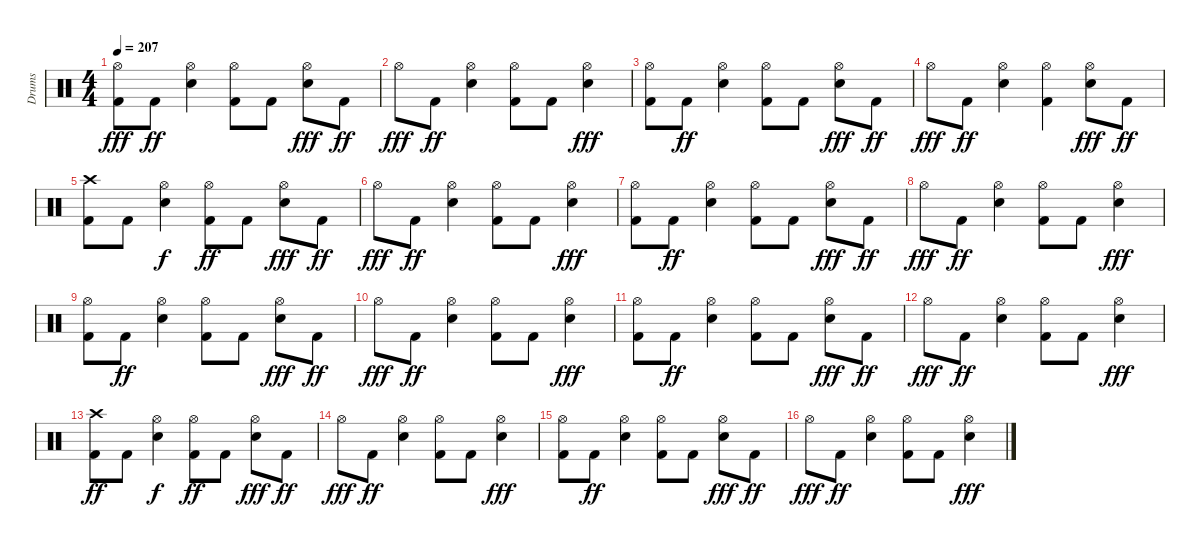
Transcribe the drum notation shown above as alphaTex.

\track ("Drums" "Drums") {instrument percussion}
\staff {score}
\articulation defaults
\ts (4 4)
\tempo 207
\clef neutral
\ks c
("Kick (hit) 2" "Hi-Hat (open)").8{dy fff} "Kick (hit) 2".8{dy ff} ("Snare (hit) 2" "Hi-Hat (open)").4 ("Kick (hit) 2" "Hi-Hat (open)").8 "Kick (hit) 2".8 ("Snare (hit) 2" "Hi-Hat (open)").8{dy fff} "Kick (hit) 2".8{dy ff} |
"Hi-Hat (open)".8{dy fff} "Kick (hit) 2".8{dy ff} ("Snare (hit) 2" "Hi-Hat (open)").4 ("Kick (hit) 2" "Hi-Hat (open)").8 "Kick (hit) 2".8 ("Snare (hit) 2" "Hi-Hat (open)").4{dy fff} |
("Kick (hit) 2" "Hi-Hat (open)").8 "Kick (hit) 2".8{dy ff} ("Snare (hit) 2" "Hi-Hat (open)").4 ("Kick (hit) 2" "Hi-Hat (open)").8 "Kick (hit) 2".8 ("Snare (hit) 2" "Hi-Hat (open)").8{dy fff} "Kick (hit) 2".8{dy ff} |
"Hi-Hat (open)".8{dy fff} "Kick (hit) 2".8{dy ff} ("Snare (hit) 2" "Hi-Hat (open)").4 ("Kick (hit) 2" "Hi-Hat (open)").4 ("Hi-Hat (open)" "Snare (hit) 2").8{dy fff} "Kick (hit) 2".8{dy ff} |
("Crash high (hit)" "Kick (hit) 2").8 "Kick (hit) 2".8 ("Hi-Hat (open)" "Snare (hit) 2").4{dy f} ("Kick (hit) 2" "Hi-Hat (open)").8{dy ff} "Kick (hit) 2".8 ("Snare (hit) 2" "Hi-Hat (open)").8{dy fff} "Kick (hit) 2".8{dy ff} |
"Hi-Hat (open)".8{dy fff} "Kick (hit) 2".8{dy ff} ("Snare (hit) 2" "Hi-Hat (open)").4 ("Kick (hit) 2" "Hi-Hat (open)").8 "Kick (hit) 2".8 ("Snare (hit) 2" "Hi-Hat (open)").4{dy fff} |
("Kick (hit) 2" "Hi-Hat (open)").8 "Kick (hit) 2".8{dy ff} ("Snare (hit) 2" "Hi-Hat (open)").4 ("Kick (hit) 2" "Hi-Hat (open)").8 "Kick (hit) 2".8 ("Snare (hit) 2" "Hi-Hat (open)").8{dy fff} "Kick (hit) 2".8{dy ff} |
"Hi-Hat (open)".8{dy fff} "Kick (hit) 2".8{dy ff} ("Snare (hit) 2" "Hi-Hat (open)").4 ("Kick (hit) 2" "Hi-Hat (open)").8 "Kick (hit) 2".8 ("Snare (hit) 2" "Hi-Hat (open)").4{dy fff} |
("Kick (hit) 2" "Hi-Hat (open)").8 "Kick (hit) 2".8{dy ff} ("Snare (hit) 2" "Hi-Hat (open)").4 ("Kick (hit) 2" "Hi-Hat (open)").8 "Kick (hit) 2".8 ("Snare (hit) 2" "Hi-Hat (open)").8{dy fff} "Kick (hit) 2".8{dy ff} |
"Hi-Hat (open)".8{dy fff} "Kick (hit) 2".8{dy ff} ("Snare (hit) 2" "Hi-Hat (open)").4 ("Kick (hit) 2" "Hi-Hat (open)").8 "Kick (hit) 2".8 ("Snare (hit) 2" "Hi-Hat (open)").4{dy fff} |
("Kick (hit) 2" "Hi-Hat (open)").8 "Kick (hit) 2".8{dy ff} ("Snare (hit) 2" "Hi-Hat (open)").4 ("Kick (hit) 2" "Hi-Hat (open)").8 "Kick (hit) 2".8 ("Snare (hit) 2" "Hi-Hat (open)").8{dy fff} "Kick (hit) 2".8{dy ff} |
"Hi-Hat (open)".8{dy fff} "Kick (hit) 2".8{dy ff} ("Snare (hit) 2" "Hi-Hat (open)").4 ("Kick (hit) 2" "Hi-Hat (open)").8 "Kick (hit) 2".8 ("Snare (hit) 2" "Hi-Hat (open)").4{dy fff} |
("Crash high (hit)" "Kick (hit) 2").8{dy ff} "Kick (hit) 2".8 ("Snare (hit) 2" "Hi-Hat (open)").4{dy f} ("Kick (hit) 2" "Hi-Hat (open)").8{dy ff} "Kick (hit) 2".8 ("Snare (hit) 2" "Hi-Hat (open)").8{dy fff} "Kick (hit) 2".8{dy ff} |
"Hi-Hat (open)".8{dy fff} "Kick (hit) 2".8{dy ff} ("Snare (hit) 2" "Hi-Hat (open)").4 ("Kick (hit) 2" "Hi-Hat (open)").8 "Kick (hit) 2".8 ("Snare (hit) 2" "Hi-Hat (open)").4{dy fff} |
("Kick (hit) 2" "Hi-Hat (open)").8 "Kick (hit) 2".8{dy ff} ("Snare (hit) 2" "Hi-Hat (open)").4 ("Kick (hit) 2" "Hi-Hat (open)").8 "Kick (hit) 2".8 ("Snare (hit) 2" "Hi-Hat (open)").8{dy fff} "Kick (hit) 2".8{dy ff} |
"Hi-Hat (open)".8{dy fff} "Kick (hit) 2".8{dy ff} ("Snare (hit) 2" "Hi-Hat (open)").4 ("Kick (hit) 2" "Hi-Hat (open)").8 "Kick (hit) 2".8 ("Snare (hit) 2" "Hi-Hat (open)").4{dy fff}
